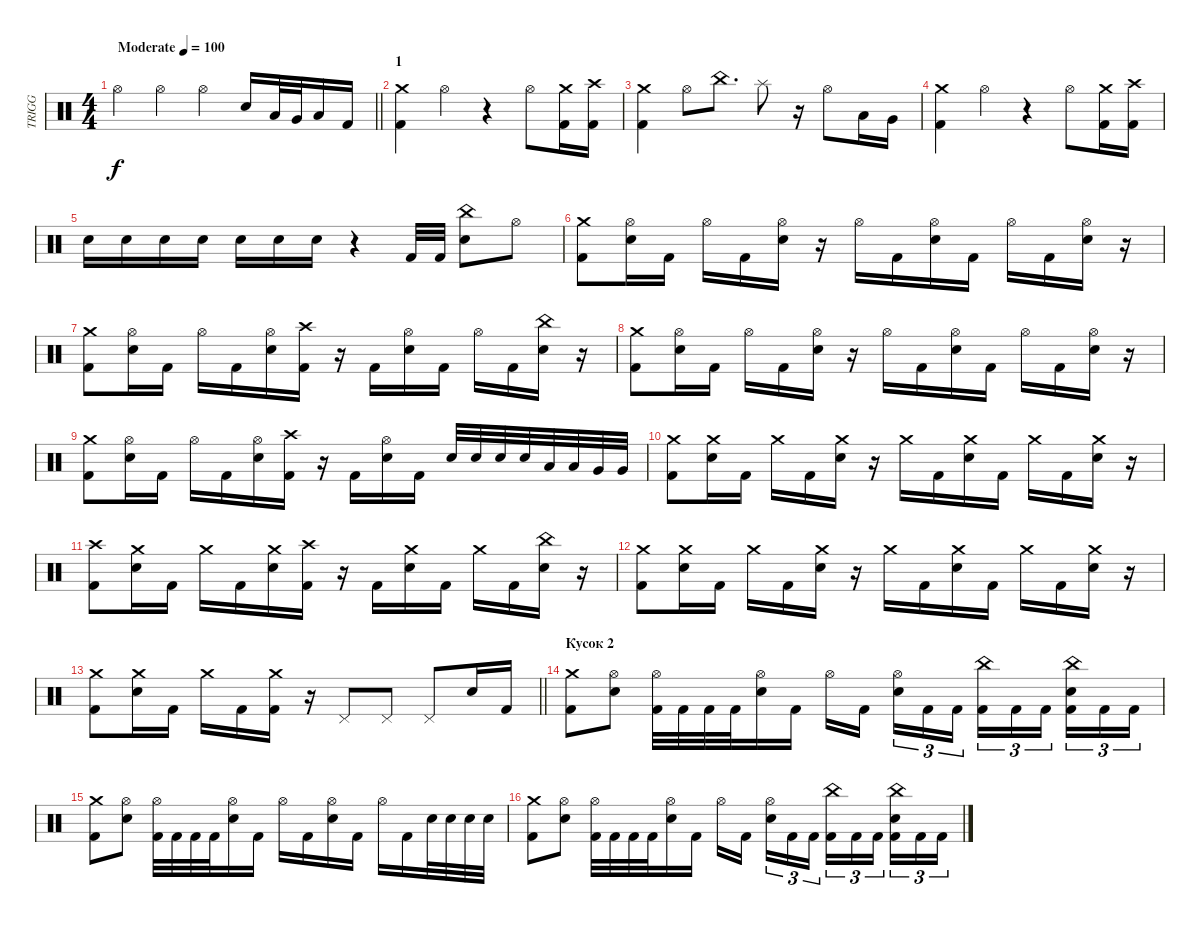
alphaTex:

\track ("TRIGG" "TRIGG") {instrument percussion}
\staff {score}
\articulation defaults
\ts (4 4)
\tempo (100 "Moderate")
\clef neutral
\barLineRight lightlight
\ks c "Hi-Hat (open)".4{dy f} "Hi-Hat (open)".4 "Hi-Hat (open)".4 "Electric Snare (hit)".16 "Low Tom (hit)".32 "Very Low Tom (hit)".32 "Low Floor Tom (hit)".16 "Kick (hit) 2".16
|
\section ("" "1")
("Crash medium (hit)" "Kick (hit) 2").4 "Hi-Hat (open)".4 r.4 "Hi-Hat (open)".8 ("Crash medium (hit)" "Kick (hit) 2").16 ("Crash high (hit)" "Kick (hit) 2").16 |
("Crash medium (hit)" "Kick (hit) 2").4 "Hi-Hat (open)".8 "China (hit)".8{d} "Splash (hit)".8 r.16 "Hi-Hat (open)".8 "Low Tom (hit)".16 "Very Low Tom (hit)".16 |
("Crash medium (hit)" "Kick (hit) 2").4 "Hi-Hat (open)".4 r.4 "Hi-Hat (open)".8 ("Crash medium (hit)" "Kick (hit) 2").16 ("Crash high (hit)" "Kick (hit) 2").16 |
"Electric Snare (hit)".16 "Electric Snare (hit)".16 "Electric Snare (hit)".16 "Electric Snare (hit)".16 "Electric Snare (hit)".16 "Electric Snare (hit)".16 "Electric Snare (hit)".16 r.4 "Kick (hit) 2".32 "Kick (hit) 2".32 ("China (hit)" "Electric Snare (hit)").8 "Hi-Hat (open)".8 |
("Crash medium (hit)" "Kick (hit) 2").8 ("Hi-Hat (open)" "Electric Snare (hit)").16 "Kick (hit) 2".16 "Hi-Hat (open)".16 "Kick (hit) 2".16 ("Hi-Hat (open)" "Electric Snare (hit)").16 r.16 "Hi-Hat (open)".16 "Kick (hit) 2".16 ("Hi-Hat (open)" "Electric Snare (hit)").16 "Kick (hit) 2".16 "Hi-Hat (open)".16 "Kick (hit) 2".16 ("Hi-Hat (open)" "Electric Snare (hit)").16 r.16 |
("Crash medium (hit)" "Kick (hit) 2").8 ("Hi-Hat (open)" "Electric Snare (hit)").16 "Kick (hit) 2".16 "Hi-Hat (open)".16 "Kick (hit) 2".16 ("Hi-Hat (open)" "Electric Snare (hit)").16 ("Crash high (hit)" "Kick (hit) 2").16 r.16 "Kick (hit) 2".16 ("Hi-Hat (open)" "Electric Snare (hit)").16 "Kick (hit) 2".16 "Hi-Hat (open)".16 "Kick (hit) 2".16 ("China (hit)" "Electric Snare (hit)").16 r.16 |
("Crash medium (hit)" "Kick (hit) 2").8 ("Hi-Hat (open)" "Electric Snare (hit)").16 "Kick (hit) 2".16 "Hi-Hat (open)".16 "Kick (hit) 2".16 ("Hi-Hat (open)" "Electric Snare (hit)").16 r.16 "Hi-Hat (open)".16 "Kick (hit) 2".16 ("Hi-Hat (open)" "Electric Snare (hit)").16 "Kick (hit) 2".16 "Hi-Hat (open)".16 "Kick (hit) 2".16 ("Hi-Hat (open)" "Electric Snare (hit)").16 r.16 |
("Crash medium (hit)" "Kick (hit) 2").8 ("Hi-Hat (open)" "Electric Snare (hit)").16 "Kick (hit) 2".16 "Hi-Hat (open)".16 "Kick (hit) 2".16 ("Hi-Hat (open)" "Electric Snare (hit)").16 ("Crash high (hit)" "Kick (hit) 2").16 r.16 "Kick (hit) 2".16 ("Hi-Hat (open)" "Electric Snare (hit)").16 "Kick (hit) 2".16 "Electric Snare (hit)".32 "Electric Snare (hit)".32 "Electric Snare (hit)".32 "Electric Snare (hit)".32 "Low Tom (hit)".32 "Low Tom (hit)".32 "Very Low Tom (hit)".32 "Very Low Tom (hit)".32 |
("Crash medium (hit)" "Kick (hit) 2").8 ("Crash medium (hit)" "Electric Snare (hit)").16 "Kick (hit) 2".16 "Crash medium (hit)".16 "Kick (hit) 2".16 ("Crash medium (hit)" "Electric Snare (hit)").16 r.16 "Crash medium (hit)".16 "Kick (hit) 2".16 ("Crash medium (hit)" "Electric Snare (hit)").16 "Kick (hit) 2".16 "Crash medium (hit)".16 "Kick (hit) 2".16 ("Crash medium (hit)" "Electric Snare (hit)").16 r.16 |
("Crash high (hit)" "Kick (hit) 2").8 ("Crash medium (hit)" "Electric Snare (hit)").16 "Kick (hit) 2".16 "Crash medium (hit)".16 "Kick (hit) 2".16 ("Crash medium (hit)" "Electric Snare (hit)").16 ("Crash high (hit)" "Kick (hit) 2").16 r.16 "Kick (hit) 2".16 ("Crash medium (hit)" "Electric Snare (hit)").16 "Kick (hit) 2".16 "Crash medium (hit)".16 "Kick (hit) 2".16 ("China (hit)" "Electric Snare (hit)").16 r.16 |
("Crash medium (hit)" "Kick (hit) 2").8 ("Crash medium (hit)" "Electric Snare (hit)").16 "Kick (hit) 2".16 "Crash medium (hit)".16 "Kick (hit) 2".16 ("Crash medium (hit)" "Electric Snare (hit)").16 r.16 "Crash medium (hit)".16 "Kick (hit) 2".16 ("Crash medium (hit)" "Electric Snare (hit)").16 "Kick (hit) 2".16 "Crash medium (hit)".16 "Kick (hit) 2".16 ("Crash medium (hit)" "Electric Snare (hit)").16 r.16 |
\barLineRight lightlight
("Crash medium (hit)" "Kick (hit) 2").8 ("Crash medium (hit)" "Electric Snare (hit)").16 "Kick (hit) 2".16 "Crash medium (hit)".16 "Kick (hit) 2".16 ("Crash medium (hit)" "Kick (hit) 2").16 r.16 "Pedal Hi-Hat (hit)".8 "Pedal Hi-Hat (hit)".8 "Pedal Hi-Hat (hit)".8 "Electric Snare (hit)".16 "Kick (hit) 2".16 |
\section ("" "Кусок 2")
("Crash medium (hit)" "Kick (hit) 2").8 ("Hi-Hat (open)" "Electric Snare (hit)").8 ("Hi-Hat (open)" "Kick (hit) 2").32 "Kick (hit) 2".32 "Kick (hit) 2".32 "Kick (hit) 2".32 ("Hi-Hat (open)" "Electric Snare (hit)").16 "Kick (hit) 2".16 "Hi-Hat (open)".16 "Kick (hit) 2".16{beam splitsecondary} ("Hi-Hat (open)" "Electric Snare (hit)").16{tu (3 2)} "Kick (hit) 2".16{tu (3 2)} "Kick (hit) 2".16{tu (3 2)} ("China (hit)" "Kick (hit) 2").16{tu (3 2)} "Kick (hit) 2".16{tu (3 2)} "Kick (hit) 2".16{tu (3 2) beam splitsecondary} ("China (hit)" "Electric Snare (hit)" "Kick (hit) 2").16{tu (3 2)} "Kick (hit) 2".16{tu (3 2)} "Kick (hit) 2".16{tu (3 2)} |
("Crash medium (hit)" "Kick (hit) 2").8 ("Hi-Hat (open)" "Electric Snare (hit)").8 ("Hi-Hat (open)" "Kick (hit) 2").32 "Kick (hit) 2".32 "Kick (hit) 2".32 "Kick (hit) 2".32 ("Hi-Hat (open)" "Electric Snare (hit)").16 "Kick (hit) 2".16 "Hi-Hat (open)".16 "Kick (hit) 2".16 ("Hi-Hat (open)" "Electric Snare (hit)").16 "Kick (hit) 2".16 "Hi-Hat (open)".16 "Kick (hit) 2".16 "Electric Snare (hit)".32 "Electric Snare (hit)".32 "Electric Snare (hit)".32 "Electric Snare (hit)".32 |
("Crash medium (hit)" "Kick (hit) 2").8 ("Hi-Hat (open)" "Electric Snare (hit)").8 ("Hi-Hat (open)" "Kick (hit) 2").32 "Kick (hit) 2".32 "Kick (hit) 2".32 "Kick (hit) 2".32 ("Hi-Hat (open)" "Electric Snare (hit)").16 "Kick (hit) 2".16 "Hi-Hat (open)".16 "Kick (hit) 2".16{beam splitsecondary} ("Hi-Hat (open)" "Electric Snare (hit)").16{tu (3 2)} "Kick (hit) 2".16{tu (3 2)} "Kick (hit) 2".16{tu (3 2)} ("China (hit)" "Kick (hit) 2").16{tu (3 2)} "Kick (hit) 2".16{tu (3 2)} "Kick (hit) 2".16{tu (3 2) beam splitsecondary} ("China (hit)" "Electric Snare (hit)" "Kick (hit) 2").16{tu (3 2)} "Kick (hit) 2".16{tu (3 2)} "Kick (hit) 2".16{tu (3 2)}
